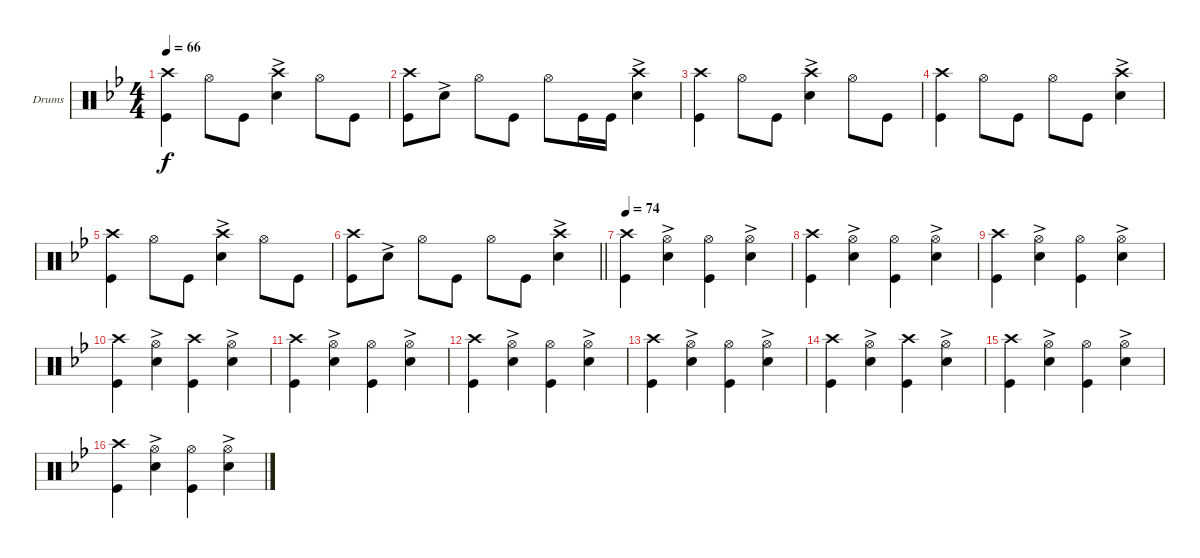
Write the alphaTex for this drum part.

\bracketExtendMode groupsimilarinstruments
\firstSystemTrackNameOrientation horizontal
\otherSystemsTrackNameOrientation horizontal
\track ("Drumkit" "Drums") {instrument percussion}
\staff {score}
\articulation defaults
\ts (4 4)
\tempo 66
\clef neutral
\ks gminor
("Crash high (hit)" "Kick (hit)").4{dy f} "Hi-Hat (open)".8 "Kick (hit)".8 ("Crash high (hit)" "Snare (hit) 2"{ac}).4 "Hi-Hat (open)".8 "Kick (hit)".8 |
("Kick (hit)" "Crash high (hit)").8 "Snare (hit) 2"{ac}.8 "Hi-Hat (open)".8 "Kick (hit)".8 "Hi-Hat (open)".8 "Kick (hit)".16 "Kick (hit)".16 ("Snare (hit) 2"{ac} "Crash high (hit)").4 |
("Crash high (hit)" "Kick (hit)").4 "Hi-Hat (open)".8 "Kick (hit)".8 ("Crash high (hit)" "Snare (hit) 2"{ac}).4 "Hi-Hat (open)".8 "Kick (hit)".8 |
("Kick (hit)" "Crash high (hit)").4 "Hi-Hat (open)".8 "Kick (hit)".8 "Hi-Hat (open)".8 "Kick (hit)".8 ("Snare (hit) 2"{ac} "Crash high (hit)").4 |
("Crash high (hit)" "Kick (hit)").4 "Hi-Hat (open)".8 "Kick (hit)".8 ("Crash high (hit)" "Snare (hit) 2"{ac}).4 "Hi-Hat (open)".8 "Kick (hit)".8 |
\barLineRight lightlight
("Kick (hit)" "Crash high (hit)").8 "Snare (hit) 2"{ac}.8 "Hi-Hat (open)".8 "Kick (hit)".8 "Hi-Hat (open)".8 "Kick (hit)".8 ("Snare (hit) 2"{ac} "Crash high (hit)").4 |
\tempo 74
("Kick (hit)" "Crash high (hit)").4 ("Snare (hit) 2"{ac} "Hi-Hat (open)").4 ("Hi-Hat (open)" "Kick (hit)").4 ("Snare (hit) 2"{ac} "Hi-Hat (open)").4 |
("Kick (hit)" "Crash high (hit)").4 ("Snare (hit) 2"{ac} "Hi-Hat (open)").4 ("Hi-Hat (open)" "Kick (hit)").4 ("Snare (hit) 2"{ac} "Hi-Hat (open)").4 |
("Kick (hit)" "Crash high (hit)").4 ("Snare (hit) 2"{ac} "Hi-Hat (open)").4 ("Hi-Hat (open)" "Kick (hit)").4 ("Snare (hit) 2"{ac} "Hi-Hat (open)").4 |
("Kick (hit)" "Crash high (hit)").4 ("Snare (hit) 2"{ac} "Hi-Hat (open)").4 ("Kick (hit)" "Crash high (hit)").4 ("Snare (hit) 2"{ac} "Hi-Hat (open)").4 |
("Kick (hit)" "Crash high (hit)").4 ("Snare (hit) 2"{ac} "Hi-Hat (open)").4 ("Hi-Hat (open)" "Kick (hit)").4 ("Snare (hit) 2"{ac} "Hi-Hat (open)").4 |
("Kick (hit)" "Crash high (hit)").4 ("Snare (hit) 2"{ac} "Hi-Hat (open)").4 ("Hi-Hat (open)" "Kick (hit)").4 ("Snare (hit) 2"{ac} "Hi-Hat (open)").4 |
("Kick (hit)" "Crash high (hit)").4 ("Snare (hit) 2"{ac} "Hi-Hat (open)").4 ("Hi-Hat (open)" "Kick (hit)").4 ("Snare (hit) 2"{ac} "Hi-Hat (open)").4 |
("Kick (hit)" "Crash high (hit)").4 ("Snare (hit) 2"{ac} "Hi-Hat (open)").4 ("Kick (hit)" "Crash high (hit)").4 ("Snare (hit) 2"{ac} "Hi-Hat (open)").4 |
("Kick (hit)" "Crash high (hit)").4 ("Snare (hit) 2"{ac} "Hi-Hat (open)").4 ("Hi-Hat (open)" "Kick (hit)").4 ("Snare (hit) 2"{ac} "Hi-Hat (open)").4 |
("Kick (hit)" "Crash high (hit)").4 ("Snare (hit) 2"{ac} "Hi-Hat (open)").4 ("Hi-Hat (open)" "Kick (hit)").4 ("Snare (hit) 2"{ac} "Hi-Hat (open)").4
